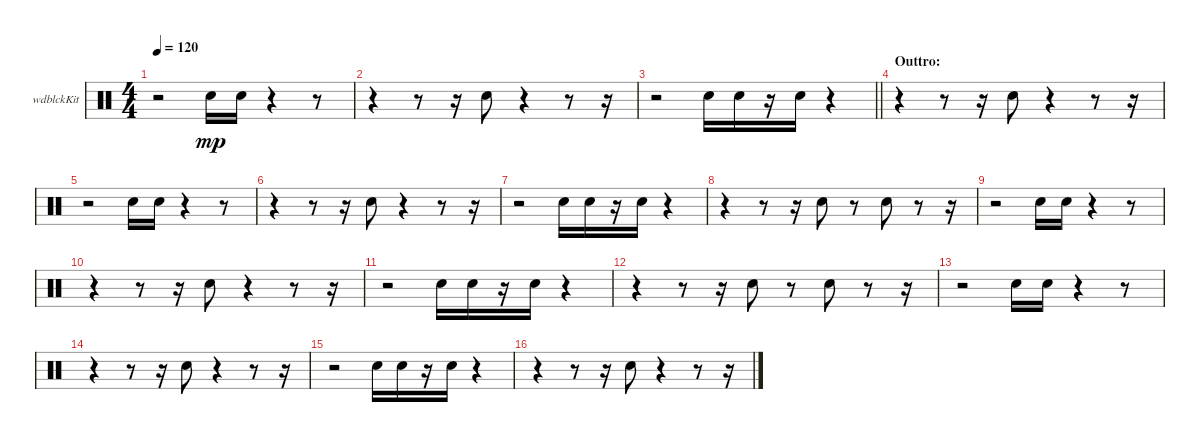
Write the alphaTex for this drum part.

\bracketExtendMode groupsimilarinstruments
\firstSystemTrackNameOrientation horizontal
\otherSystemsTrackNameOrientation horizontal
\track ("Woodblock" "wdblckKit") {instrument percussion}
\staff {score}
\articulation defaults
\ts (4 4)
\tempo 120
\clef neutral
\ks c
r.2{dy mp} "Snare (hit) 2".16 "Snare (hit) 2".16 r.4 r.8 |
r.4 r.8 r.16 "Snare (hit) 2".8 r.4 r.8 r.16 |
\barLineRight lightlight
r.2 "Snare (hit) 2".16 "Snare (hit) 2".16 r.16 "Snare (hit) 2".16 r.4 |
\section ("" "Outtro:")
r.4 r.8 r.16 "Snare (hit) 2".8 r.4 r.8 r.16 |
r.2 "Snare (hit) 2".16 "Snare (hit) 2".16 r.4 r.8 |
r.4 r.8 r.16 "Snare (hit) 2".8 r.4 r.8 r.16 |
r.2 "Snare (hit) 2".16 "Snare (hit) 2".16 r.16 "Snare (hit) 2".16 r.4 |
r.4 r.8 r.16 "Snare (hit) 2".8 r.8 "Snare (hit) 2".8 r.8 r.16 |
r.2 "Snare (hit) 2".16 "Snare (hit) 2".16 r.4 r.8 |
r.4 r.8 r.16 "Snare (hit) 2".8 r.4 r.8 r.16 |
r.2 "Snare (hit) 2".16 "Snare (hit) 2".16 r.16 "Snare (hit) 2".16 r.4 |
r.4 r.8 r.16 "Snare (hit) 2".8 r.8 "Snare (hit) 2".8 r.8 r.16 |
r.2 "Snare (hit) 2".16 "Snare (hit) 2".16 r.4 r.8 |
r.4 r.8 r.16 "Snare (hit) 2".8 r.4 r.8 r.16 |
r.2 "Snare (hit) 2".16 "Snare (hit) 2".16 r.16 "Snare (hit) 2".16 r.4 |
r.4 r.8 r.16 "Snare (hit) 2".8 r.4 r.8 r.16
